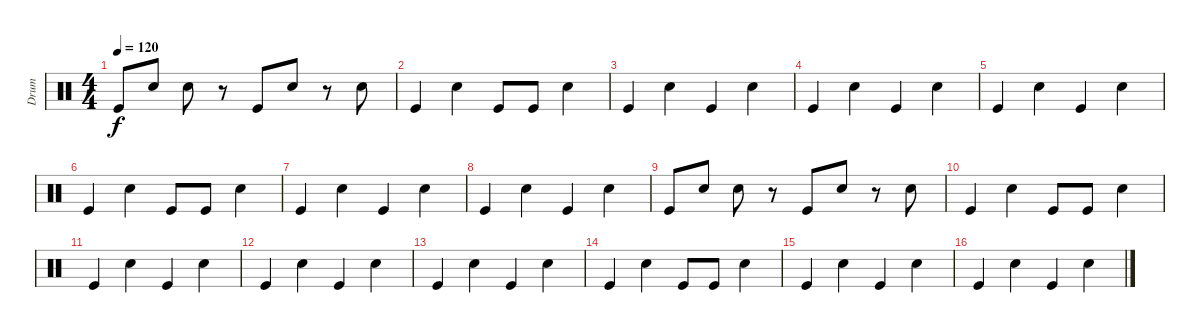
\track ("Drum" "Drum") {instrument percussion}
\staff {score}
\articulation defaults
\ts (4 4)
\tempo 120
\clef neutral
\ks c "Kick (hit)".8{dy f} "Snare (hit) 2".8 "Snare (hit) 2".8
r.8 "Kick (hit)".8 "Snare (hit) 2".8 r.8 "Snare (hit) 2".8 |
"Kick (hit)".4 "Snare (hit) 2".4 "Kick (hit)".8 "Kick (hit)".8 "Snare (hit) 2".4 |
"Kick (hit)".4 "Snare (hit) 2".4 "Kick (hit)".4 "Snare (hit) 2".4 |
"Kick (hit)".4 "Snare (hit) 2".4 "Kick (hit)".4 "Snare (hit) 2".4 |
"Kick (hit)".4 "Snare (hit) 2".4 "Kick (hit)".4 "Snare (hit) 2".4 |
"Kick (hit)".4 "Snare (hit) 2".4 "Kick (hit)".8 "Kick (hit)".8 "Snare (hit) 2".4 |
"Kick (hit)".4 "Snare (hit) 2".4 "Kick (hit)".4 "Snare (hit) 2".4 |
"Kick (hit)".4 "Snare (hit) 2".4 "Kick (hit)".4 "Snare (hit) 2".4 |
"Kick (hit)".8 "Snare (hit) 2".8 "Snare (hit) 2".8 r.8 "Kick (hit)".8 "Snare (hit) 2".8 r.8 "Snare (hit) 2".8 |
"Kick (hit)".4 "Snare (hit) 2".4 "Kick (hit)".8 "Kick (hit)".8 "Snare (hit) 2".4 |
"Kick (hit)".4 "Snare (hit) 2".4 "Kick (hit)".4 "Snare (hit) 2".4 |
"Kick (hit)".4 "Snare (hit) 2".4 "Kick (hit)".4 "Snare (hit) 2".4 |
"Kick (hit)".4 "Snare (hit) 2".4 "Kick (hit)".4 "Snare (hit) 2".4 |
"Kick (hit)".4 "Snare (hit) 2".4 "Kick (hit)".8 "Kick (hit)".8 "Snare (hit) 2".4 |
"Kick (hit)".4 "Snare (hit) 2".4 "Kick (hit)".4 "Snare (hit) 2".4 |
"Kick (hit)".4 "Snare (hit) 2".4 "Kick (hit)".4 "Snare (hit) 2".4
